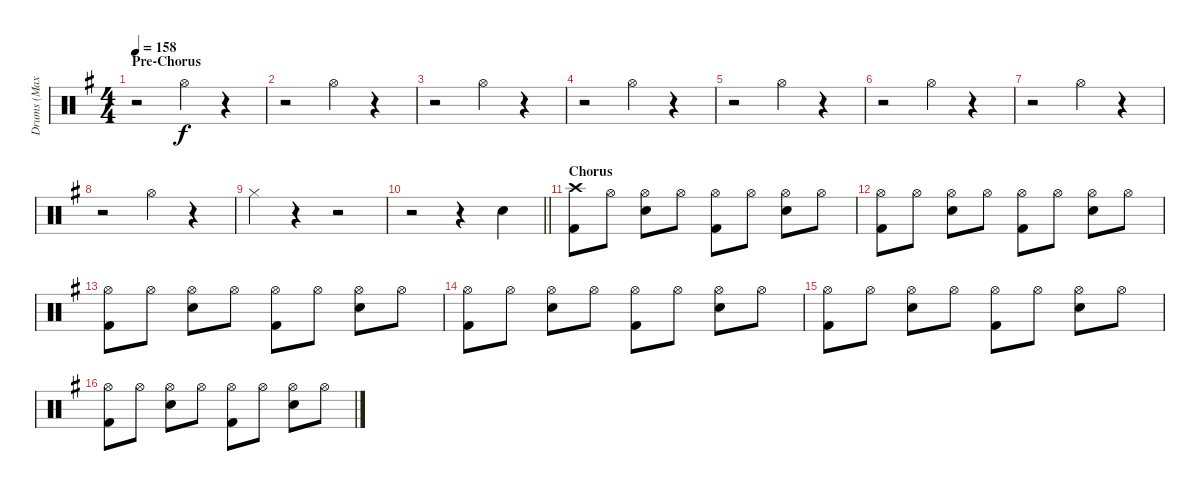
\track ("Drums (Max)" "Drums (Max") {instrument percussion}
\staff {score}
\articulation defaults
\ts (4 4)
\section ("" "Pre-Chorus")
\tempo 158
\clef neutral
\ks g
r.2{dy f} "Hi-Hat (open)".4 r.4 |
r.2 "Hi-Hat (open)".4 r.4 |
r.2 "Hi-Hat (open)".4 r.4 |
r.2 "Hi-Hat (open)".4 r.4 |
r.2 "Hi-Hat (open)".4 r.4 |
r.2 "Hi-Hat (open)".4 r.4 |
r.2 "Hi-Hat (open)".4 r.4 |
r.2 "Hi-Hat (open)".4 r.4 |
"Hi-Hat (closed)".4 r.4 r.2 |
\barLineRight lightlight
r.2 r.4 "Snare (hit) 2".4 |
\section ("" "Chorus")
("Crash high (hit)" "Kick (hit) 2").8 "Hi-Hat (open)".8 ("Hi-Hat (open)" "Snare (hit) 2").8 "Hi-Hat (open)".8 ("Hi-Hat (open)" "Kick (hit) 2").8 "Hi-Hat (open)".8 ("Hi-Hat (open)" "Snare (hit) 2").8 "Hi-Hat (open)".8 |
("Hi-Hat (open)" "Kick (hit) 2").8 "Hi-Hat (open)".8 ("Hi-Hat (open)" "Snare (hit) 2").8 "Hi-Hat (open)".8 ("Hi-Hat (open)" "Kick (hit) 2").8 "Hi-Hat (open)".8 ("Hi-Hat (open)" "Snare (hit) 2").8 "Hi-Hat (open)".8 |
("Hi-Hat (open)" "Kick (hit) 2").8 "Hi-Hat (open)".8 ("Hi-Hat (open)" "Snare (hit) 2").8 "Hi-Hat (open)".8 ("Hi-Hat (open)" "Kick (hit) 2").8 "Hi-Hat (open)".8 ("Hi-Hat (open)" "Snare (hit) 2").8 "Hi-Hat (open)".8 |
("Hi-Hat (open)" "Kick (hit) 2").8 "Hi-Hat (open)".8 ("Hi-Hat (open)" "Snare (hit) 2").8 "Hi-Hat (open)".8 ("Hi-Hat (open)" "Kick (hit) 2").8 "Hi-Hat (open)".8 ("Hi-Hat (open)" "Snare (hit) 2").8 "Hi-Hat (open)".8 |
("Hi-Hat (open)" "Kick (hit) 2").8 "Hi-Hat (open)".8 ("Hi-Hat (open)" "Snare (hit) 2").8 "Hi-Hat (open)".8 ("Hi-Hat (open)" "Kick (hit) 2").8 "Hi-Hat (open)".8 ("Hi-Hat (open)" "Snare (hit) 2").8 "Hi-Hat (open)".8 |
("Hi-Hat (open)" "Kick (hit) 2").8 "Hi-Hat (open)".8 ("Hi-Hat (open)" "Snare (hit) 2").8 "Hi-Hat (open)".8 ("Hi-Hat (open)" "Kick (hit) 2").8 "Hi-Hat (open)".8 ("Hi-Hat (open)" "Snare (hit) 2").8 "Hi-Hat (open)".8
